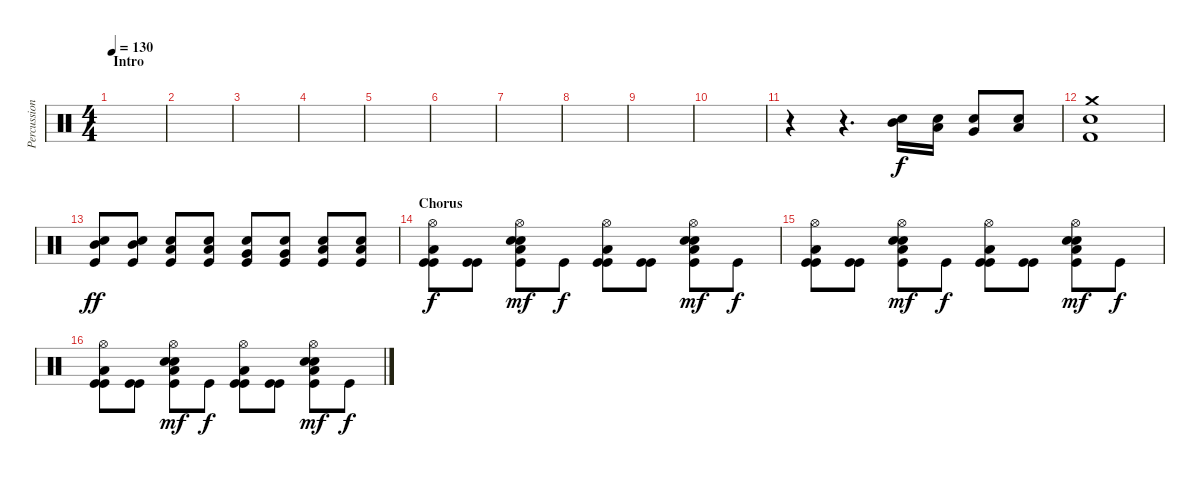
\track ("Percussion" "Percussion") {instrument percussion}
\staff {score}
\articulation defaults
\ts (4 4)
\section ("" "Intro")
\tempo 130
\clef neutral
\ks c
|
|
|
|
|
|
|
|
|
|
r.4 r.4{d} ("Snare (hit) 2" "Mid Tom (hit)").16{volume 15} ("Snare (hit) 2" "Low Tom (hit)").16 ("Snare (hit) 2" "Very Low Tom (hit)").8 ("Snare (hit) 2" "Low Floor Tom (hit)").8 |
("Crash medium (hit)" "Snare (hit) 2" "Kick (hit) 2").1{dy f volume 13} |
("Mid Tom (hit)" "Snare (hit) 2" "Kick (hit)").8{dy ff} ("Mid Tom (hit)" "Snare (hit) 2" "Kick (hit)").8 ("Low Tom (hit)" "Snare (hit) 2" "Kick (hit)").8 ("Low Tom (hit)" "Snare (hit) 2" "Kick (hit)").8 ("Very Low Tom (hit)" "Snare (hit) 2" "Kick (hit)").8 ("Very Low Tom (hit)" "Snare (hit) 2" "Kick (hit)").8 ("Low Floor Tom (hit)" "Snare (hit) 2" "Kick (hit)").8 ("Low Floor Tom (hit)" "Snare (hit) 2" "Kick (hit)").8 |
\section ("" "Chorus")
("Hi-Hat (open)" "Kick (hit)" "Kick (hit)" "Low Floor Tom (hit)").8{dy f} ("Kick (hit)" "Kick (hit)").8 ("Hi-Hat (open)" "Snare (hit) 2" "Snare (hit) 2" "Kick (hit)" "Low Floor Tom (hit)").8{dy mf} "Kick (hit)".8{dy f} ("Hi-Hat (open)" "Kick (hit)" "Kick (hit)" "Low Floor Tom (hit)").8 ("Kick (hit)" "Kick (hit)").8 ("Hi-Hat (open)" "Snare (hit) 2" "Snare (hit) 2" "Kick (hit)" "Low Floor Tom (hit)").8{dy mf} "Kick (hit)".8{dy f} |
("Hi-Hat (open)" "Kick (hit)" "Kick (hit)" "Low Floor Tom (hit)").8 ("Kick (hit)" "Kick (hit)").8 ("Hi-Hat (open)" "Snare (hit) 2" "Snare (hit) 2" "Kick (hit)" "Low Floor Tom (hit)").8{dy mf} "Kick (hit)".8{dy f} ("Hi-Hat (open)" "Kick (hit)" "Kick (hit)" "Low Floor Tom (hit)").8 ("Kick (hit)" "Kick (hit)").8 ("Hi-Hat (open)" "Snare (hit) 2" "Snare (hit) 2" "Kick (hit)" "Low Floor Tom (hit)").8{dy mf} "Kick (hit)".8{dy f} |
("Hi-Hat (open)" "Kick (hit)" "Kick (hit)" "Low Floor Tom (hit)").8 ("Kick (hit)" "Kick (hit)").8 ("Hi-Hat (open)" "Snare (hit) 2" "Snare (hit) 2" "Kick (hit)" "Low Floor Tom (hit)").8{dy mf} "Kick (hit)".8{dy f} ("Hi-Hat (open)" "Kick (hit)" "Kick (hit)" "Low Floor Tom (hit)").8 ("Kick (hit)" "Kick (hit)").8 ("Hi-Hat (open)" "Snare (hit) 2" "Snare (hit) 2" "Kick (hit)" "Low Floor Tom (hit)").8{dy mf} "Kick (hit)".8{dy f}
